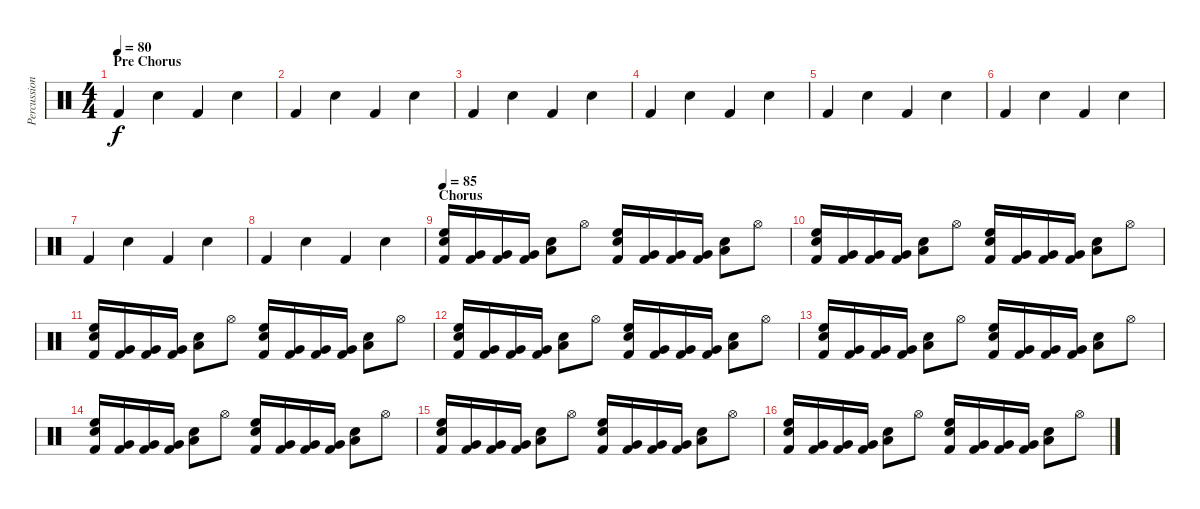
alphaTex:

\track ("Percussion . Jeremiah Green" "Percussion") {instrument percussion}
\staff {score}
\articulation defaults
\ts (4 4)
\section ("" "Pre Chorus")
\tempo 80
\clef neutral
\ks c "Kick (hit) 2".4{dy f} "Electric Snare (hit)".4 "Kick (hit) 2".4 "Electric Snare (hit)".4
|
"Kick (hit) 2".4 "Electric Snare (hit)".4 "Kick (hit) 2".4 "Electric Snare (hit)".4 |
"Kick (hit) 2".4 "Electric Snare (hit)".4 "Kick (hit) 2".4 "Electric Snare (hit)".4 |
"Kick (hit) 2".4 "Electric Snare (hit)".4 "Kick (hit) 2".4 "Electric Snare (hit)".4 |
"Kick (hit) 2".4 "Electric Snare (hit)".4 "Kick (hit) 2".4 "Electric Snare (hit)".4 |
"Kick (hit) 2".4 "Electric Snare (hit)".4 "Kick (hit) 2".4 "Electric Snare (hit)".4 |
"Kick (hit) 2".4 "Electric Snare (hit)".4 "Kick (hit) 2".4 "Electric Snare (hit)".4 |
"Kick (hit) 2".4 "Electric Snare (hit)".4 "Kick (hit) 2".4 "Electric Snare (hit)".4 |
\section ("" "Chorus")
\tempo 85
("High Floor Tom (hit)" "Snare (hit) 2" "Kick (hit) 2").16 ("Very Low Tom (hit)" "Kick (hit) 2").16 ("Very Low Tom (hit)" "Kick (hit) 2").16 ("Very Low Tom (hit)" "Kick (hit) 2").16 ("Low Tom (hit)" "Electric Snare (hit)").8 "Hi-Hat (open)".8 ("High Floor Tom (hit)" "Snare (hit) 2" "Kick (hit) 2").16 ("Very Low Tom (hit)" "Kick (hit) 2").16 ("Very Low Tom (hit)" "Kick (hit) 2").16 ("Very Low Tom (hit)" "Kick (hit) 2").16 ("Low Tom (hit)" "Electric Snare (hit)").8 "Hi-Hat (open)".8 |
("High Floor Tom (hit)" "Snare (hit) 2" "Kick (hit) 2").16 ("Very Low Tom (hit)" "Kick (hit) 2").16 ("Very Low Tom (hit)" "Kick (hit) 2").16 ("Very Low Tom (hit)" "Kick (hit) 2").16 ("Low Tom (hit)" "Electric Snare (hit)").8 "Hi-Hat (open)".8 ("High Floor Tom (hit)" "Snare (hit) 2" "Kick (hit) 2").16 ("Very Low Tom (hit)" "Kick (hit) 2").16 ("Very Low Tom (hit)" "Kick (hit) 2").16 ("Very Low Tom (hit)" "Kick (hit) 2").16 ("Low Tom (hit)" "Electric Snare (hit)").8 "Hi-Hat (open)".8 |
("High Floor Tom (hit)" "Snare (hit) 2" "Kick (hit) 2").16 ("Very Low Tom (hit)" "Kick (hit) 2").16 ("Very Low Tom (hit)" "Kick (hit) 2").16 ("Very Low Tom (hit)" "Kick (hit) 2").16 ("Low Tom (hit)" "Electric Snare (hit)").8 "Hi-Hat (open)".8 ("High Floor Tom (hit)" "Snare (hit) 2" "Kick (hit) 2").16 ("Very Low Tom (hit)" "Kick (hit) 2").16 ("Very Low Tom (hit)" "Kick (hit) 2").16 ("Very Low Tom (hit)" "Kick (hit) 2").16 ("Low Tom (hit)" "Electric Snare (hit)").8 "Hi-Hat (open)".8 |
("High Floor Tom (hit)" "Snare (hit) 2" "Kick (hit) 2").16 ("Very Low Tom (hit)" "Kick (hit) 2").16 ("Very Low Tom (hit)" "Kick (hit) 2").16 ("Very Low Tom (hit)" "Kick (hit) 2").16 ("Low Tom (hit)" "Electric Snare (hit)").8 "Hi-Hat (open)".8 ("High Floor Tom (hit)" "Snare (hit) 2" "Kick (hit) 2").16 ("Very Low Tom (hit)" "Kick (hit) 2").16 ("Very Low Tom (hit)" "Kick (hit) 2").16 ("Very Low Tom (hit)" "Kick (hit) 2").16 ("Low Tom (hit)" "Electric Snare (hit)").8 "Hi-Hat (open)".8 |
("High Floor Tom (hit)" "Snare (hit) 2" "Kick (hit) 2").16 ("Very Low Tom (hit)" "Kick (hit) 2").16 ("Very Low Tom (hit)" "Kick (hit) 2").16 ("Very Low Tom (hit)" "Kick (hit) 2").16 ("Low Tom (hit)" "Electric Snare (hit)").8 "Hi-Hat (open)".8 ("High Floor Tom (hit)" "Snare (hit) 2" "Kick (hit) 2").16 ("Very Low Tom (hit)" "Kick (hit) 2").16 ("Very Low Tom (hit)" "Kick (hit) 2").16 ("Very Low Tom (hit)" "Kick (hit) 2").16 ("Low Tom (hit)" "Electric Snare (hit)").8 "Hi-Hat (open)".8 |
("High Floor Tom (hit)" "Snare (hit) 2" "Kick (hit) 2").16 ("Very Low Tom (hit)" "Kick (hit) 2").16 ("Very Low Tom (hit)" "Kick (hit) 2").16 ("Very Low Tom (hit)" "Kick (hit) 2").16 ("Low Tom (hit)" "Electric Snare (hit)").8 "Hi-Hat (open)".8 ("High Floor Tom (hit)" "Snare (hit) 2" "Kick (hit) 2").16 ("Very Low Tom (hit)" "Kick (hit) 2").16 ("Very Low Tom (hit)" "Kick (hit) 2").16 ("Very Low Tom (hit)" "Kick (hit) 2").16 ("Low Tom (hit)" "Electric Snare (hit)").8 "Hi-Hat (open)".8 |
("High Floor Tom (hit)" "Snare (hit) 2" "Kick (hit) 2").16 ("Very Low Tom (hit)" "Kick (hit) 2").16 ("Very Low Tom (hit)" "Kick (hit) 2").16 ("Very Low Tom (hit)" "Kick (hit) 2").16 ("Low Tom (hit)" "Electric Snare (hit)").8 "Hi-Hat (open)".8 ("High Floor Tom (hit)" "Snare (hit) 2" "Kick (hit) 2").16 ("Very Low Tom (hit)" "Kick (hit) 2").16 ("Very Low Tom (hit)" "Kick (hit) 2").16 ("Very Low Tom (hit)" "Kick (hit) 2").16 ("Low Tom (hit)" "Electric Snare (hit)").8 "Hi-Hat (open)".8 |
("High Floor Tom (hit)" "Snare (hit) 2" "Kick (hit) 2").16 ("Very Low Tom (hit)" "Kick (hit) 2").16 ("Very Low Tom (hit)" "Kick (hit) 2").16 ("Very Low Tom (hit)" "Kick (hit) 2").16 ("Low Tom (hit)" "Electric Snare (hit)").8 "Hi-Hat (open)".8 ("High Floor Tom (hit)" "Snare (hit) 2" "Kick (hit) 2").16 ("Very Low Tom (hit)" "Kick (hit) 2").16 ("Very Low Tom (hit)" "Kick (hit) 2").16 ("Very Low Tom (hit)" "Kick (hit) 2").16 ("Low Tom (hit)" "Electric Snare (hit)").8 "Hi-Hat (open)".8
